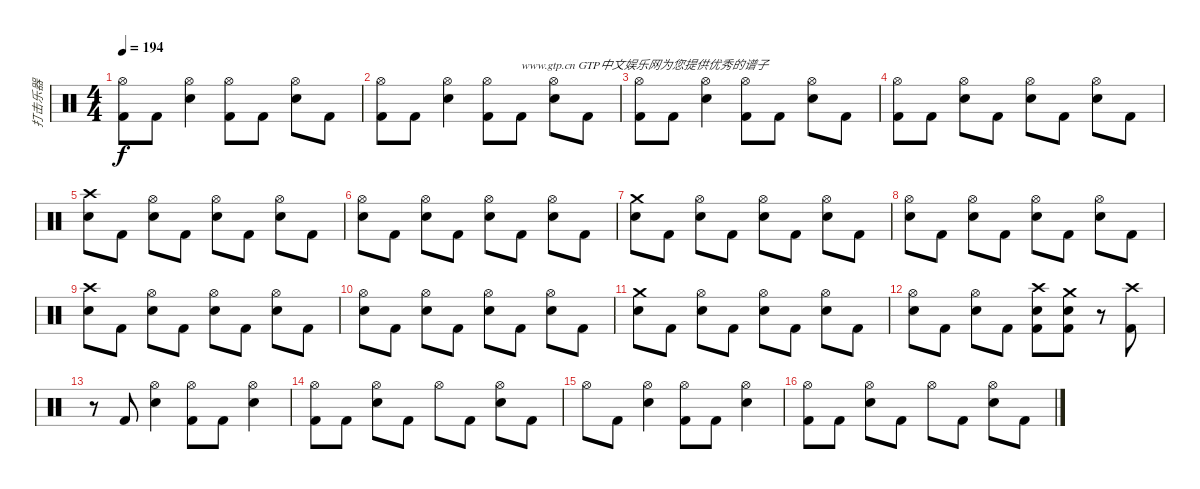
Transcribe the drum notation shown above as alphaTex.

\track ("打击乐器" "打击乐器") {instrument percussion}
\staff {score}
\articulation defaults
\ts (4 4)
\tempo 194
\clef neutral
\ks c
("Hi-Hat (open)" "Kick (hit) 2").8{dy f} "Kick (hit) 2".8 ("Hi-Hat (open)" "Electric Snare (hit)").4 ("Hi-Hat (open)" "Kick (hit) 2").8 "Kick (hit) 2".8 ("Hi-Hat (open)" "Electric Snare (hit)").8 "Kick (hit) 2".8 |
("Hi-Hat (open)" "Kick (hit) 2").8 "Kick (hit) 2".8 ("Hi-Hat (open)" "Electric Snare (hit)").4 ("Hi-Hat (open)" "Kick (hit) 2").8 "Kick (hit) 2".8{txt "www.gtp.cn GTP中文娱乐网为您提供优秀的谱子"} ("Hi-Hat (open)" "Electric Snare (hit)").8 "Kick (hit) 2".8 |
("Hi-Hat (open)" "Kick (hit) 2").8 "Kick (hit) 2".8 ("Hi-Hat (open)" "Electric Snare (hit)").4 ("Hi-Hat (open)" "Kick (hit) 2").8 "Kick (hit) 2".8 ("Hi-Hat (open)" "Electric Snare (hit)").8 "Kick (hit) 2".8 |
("Hi-Hat (open)" "Kick (hit) 2").8 "Kick (hit) 2".8 ("Hi-Hat (open)" "Electric Snare (hit)").8 "Kick (hit) 2".8 ("Hi-Hat (open)" "Electric Snare (hit)").8 "Kick (hit) 2".8 ("Hi-Hat (open)" "Electric Snare (hit)").8 "Kick (hit) 2".8 |
("Crash high (hit)" "Electric Snare (hit)").8 "Kick (hit) 2".8 ("Hi-Hat (open)" "Electric Snare (hit)").8 "Kick (hit) 2".8 ("Hi-Hat (open)" "Electric Snare (hit)").8 "Kick (hit) 2".8 ("Hi-Hat (open)" "Electric Snare (hit)").8 "Kick (hit) 2".8 |
("Hi-Hat (open)" "Electric Snare (hit)").8 "Kick (hit) 2".8 ("Hi-Hat (open)" "Electric Snare (hit)").8 "Kick (hit) 2".8 ("Hi-Hat (open)" "Electric Snare (hit)").8 "Kick (hit) 2".8 ("Hi-Hat (open)" "Electric Snare (hit)").8 "Kick (hit) 2".8 |
("Crash medium (hit)" "Electric Snare (hit)").8 "Kick (hit) 2".8 ("Hi-Hat (open)" "Electric Snare (hit)").8 "Kick (hit) 2".8 ("Hi-Hat (open)" "Electric Snare (hit)").8 "Kick (hit) 2".8 ("Hi-Hat (open)" "Electric Snare (hit)").8 "Kick (hit) 2".8 |
("Hi-Hat (open)" "Electric Snare (hit)").8 "Kick (hit) 2".8 ("Hi-Hat (open)" "Electric Snare (hit)").8 "Kick (hit) 2".8 ("Hi-Hat (open)" "Electric Snare (hit)").8 "Kick (hit) 2".8 ("Hi-Hat (open)" "Electric Snare (hit)").8 "Kick (hit) 2".8 |
("Crash high (hit)" "Electric Snare (hit)").8 "Kick (hit) 2".8 ("Hi-Hat (open)" "Electric Snare (hit)").8 "Kick (hit) 2".8 ("Hi-Hat (open)" "Electric Snare (hit)").8 "Kick (hit) 2".8 ("Hi-Hat (open)" "Electric Snare (hit)").8 "Kick (hit) 2".8 |
("Hi-Hat (open)" "Electric Snare (hit)").8 "Kick (hit) 2".8 ("Hi-Hat (open)" "Electric Snare (hit)").8 "Kick (hit) 2".8 ("Hi-Hat (open)" "Electric Snare (hit)").8 "Kick (hit) 2".8 ("Hi-Hat (open)" "Electric Snare (hit)").8 "Kick (hit) 2".8 |
("Crash medium (hit)" "Electric Snare (hit)").8 "Kick (hit) 2".8 ("Hi-Hat (open)" "Electric Snare (hit)").8 "Kick (hit) 2".8 ("Hi-Hat (open)" "Electric Snare (hit)").8 "Kick (hit) 2".8 ("Hi-Hat (open)" "Electric Snare (hit)").8 "Kick (hit) 2".8 |
("Hi-Hat (open)" "Electric Snare (hit)").8 "Kick (hit) 2".8 ("Hi-Hat (open)" "Electric Snare (hit)").8 "Kick (hit) 2".8 ("Crash high (hit)" "Electric Snare (hit)" "Kick (hit) 2").8 ("Crash medium (hit)" "Electric Snare (hit)" "Kick (hit) 2").8 r.8 ("Crash high (hit)" "Kick (hit) 2").8 |
r.8 "Kick (hit) 2".8 ("Hi-Hat (open)" "Electric Snare (hit)").4 ("Hi-Hat (open)" "Kick (hit) 2").8 "Kick (hit) 2".8 ("Hi-Hat (open)" "Electric Snare (hit)").4 |
("Hi-Hat (open)" "Kick (hit) 2").8 "Kick (hit) 2".8 ("Hi-Hat (open)" "Electric Snare (hit)").8 "Kick (hit) 2".8 "Hi-Hat (open)".8 "Kick (hit) 2".8 ("Hi-Hat (open)" "Electric Snare (hit)").8 "Kick (hit) 2".8 |
"Hi-Hat (open)".8 "Kick (hit) 2".8 ("Hi-Hat (open)" "Electric Snare (hit)").4 ("Hi-Hat (open)" "Kick (hit) 2").8 "Kick (hit) 2".8 ("Hi-Hat (open)" "Electric Snare (hit)").4 |
("Hi-Hat (open)" "Kick (hit) 2").8 "Kick (hit) 2".8 ("Hi-Hat (open)" "Electric Snare (hit)").8 "Kick (hit) 2".8 "Hi-Hat (open)".8 "Kick (hit) 2".8 ("Hi-Hat (open)" "Electric Snare (hit)").8 "Kick (hit) 2".8
